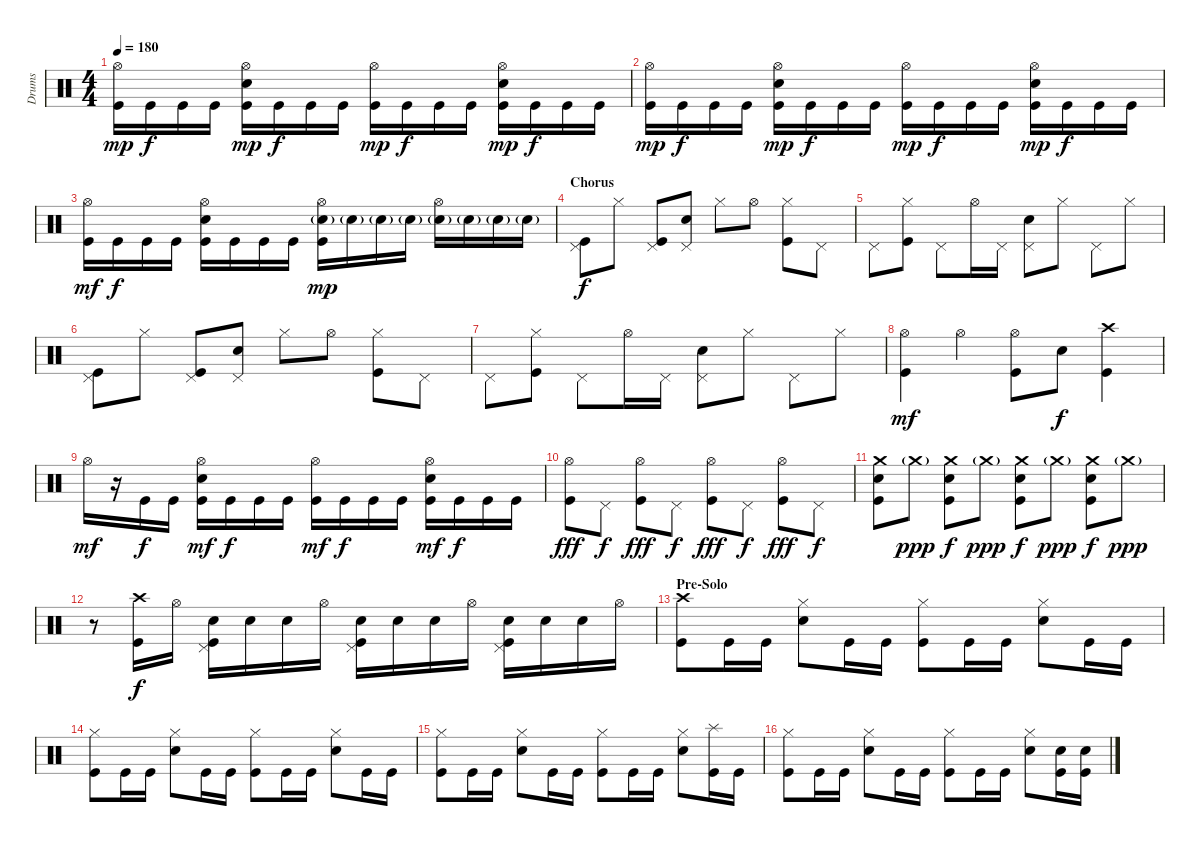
\track ("Drums" "Drums") {instrument percussion}
\staff {score}
\articulation defaults
\ts (4 4)
\tempo 180
\clef neutral
\ks c
("Hi-Hat (open)" "Kick (hit)").16{dy mp} "Kick (hit)".16{dy f} "Kick (hit)".16 "Kick (hit)".16 ("Hi-Hat (open)" "Electric Snare (hit)" "Kick (hit)").16{dy mp} "Kick (hit)".16{dy f} "Kick (hit)".16 "Kick (hit)".16 ("Hi-Hat (open)" "Kick (hit)").16{dy mp} "Kick (hit)".16{dy f} "Kick (hit)".16 "Kick (hit)".16 ("Hi-Hat (open)" "Electric Snare (hit)" "Kick (hit)").16{dy mp} "Kick (hit)".16{dy f} "Kick (hit)".16 "Kick (hit)".16 |
("Hi-Hat (open)" "Kick (hit)").16{dy mp} "Kick (hit)".16{dy f} "Kick (hit)".16 "Kick (hit)".16 ("Hi-Hat (open)" "Electric Snare (hit)" "Kick (hit)").16{dy mp} "Kick (hit)".16{dy f} "Kick (hit)".16 "Kick (hit)".16 ("Hi-Hat (open)" "Kick (hit)").16{dy mp} "Kick (hit)".16{dy f} "Kick (hit)".16 "Kick (hit)".16 ("Hi-Hat (open)" "Electric Snare (hit)" "Kick (hit)").16{dy mp} "Kick (hit)".16{dy f} "Kick (hit)".16 "Kick (hit)".16 |
("Hi-Hat (open)" "Kick (hit)").16{dy mf} "Kick (hit)".16{dy f} "Kick (hit)".16 "Kick (hit)".16 ("Hi-Hat (open)" "Electric Snare (hit)" "Kick (hit)").16 "Kick (hit)".16 "Kick (hit)".16 "Kick (hit)".16 ("Hi-Hat (open)" "Electric Snare (hit)"{g} "Kick (hit)").16{dy mp} "Electric Snare (hit)"{g}.16 "Electric Snare (hit)"{g}.16 "Electric Snare (hit)"{g}.16 ("Hi-Hat (open)" "Electric Snare (hit)"{g}).16 "Electric Snare (hit)"{g}.16 "Electric Snare (hit)"{g}.16 "Electric Snare (hit)"{g}.16 |
\section ("" "Chorus")
("Pedal Hi-Hat (hit)" "Kick (hit)").8{dy f} "Hi-Hat (closed)".8 ("Pedal Hi-Hat (hit)" "Kick (hit)").8 ("Pedal Hi-Hat (hit)" "Electric Snare (hit)").8 "Hi-Hat (closed)".8 "Hi-Hat (open)".8 ("Hi-Hat (closed)" "Kick (hit)").8 "Pedal Hi-Hat (hit)".8 |
"Pedal Hi-Hat (hit)".8 ("Hi-Hat (closed)" "Kick (hit)").8 "Pedal Hi-Hat (hit)".8 "Hi-Hat (open)".16 "Pedal Hi-Hat (hit)".16 ("Pedal Hi-Hat (hit)" "Electric Snare (hit)").8 "Hi-Hat (closed)".8 "Pedal Hi-Hat (hit)".8 "Hi-Hat (closed)".8 |
("Pedal Hi-Hat (hit)" "Kick (hit)").8 "Hi-Hat (closed)".8 ("Pedal Hi-Hat (hit)" "Kick (hit)").8 ("Pedal Hi-Hat (hit)" "Electric Snare (hit)").8 "Hi-Hat (closed)".8 "Hi-Hat (open)".8 ("Hi-Hat (closed)" "Kick (hit)").8 "Pedal Hi-Hat (hit)".8 |
"Pedal Hi-Hat (hit)".8 ("Hi-Hat (closed)" "Kick (hit)").8 "Pedal Hi-Hat (hit)".8 "Hi-Hat (open)".16 "Pedal Hi-Hat (hit)".16 ("Pedal Hi-Hat (hit)" "Electric Snare (hit)").8 "Hi-Hat (closed)".8 "Pedal Hi-Hat (hit)".8 "Hi-Hat (closed)".8 |
("Hi-Hat (open)" "Kick (hit)").4{dy mf} "Hi-Hat (open)".4 ("Hi-Hat (open)" "Kick (hit)").8 "Electric Snare (hit)".8{dy f} ("Crash high (hit)" "Kick (hit)").4 |
"Hi-Hat (open)".16{dy mf} r.16 "Kick (hit)".16{dy f} "Kick (hit)".16 ("Hi-Hat (open)" "Electric Snare (hit)" "Kick (hit)").16{dy mf} "Kick (hit)".16{dy f} "Kick (hit)".16 "Kick (hit)".16 ("Hi-Hat (open)" "Kick (hit)").16{dy mf} "Kick (hit)".16{dy f} "Kick (hit)".16 "Kick (hit)".16 ("Hi-Hat (open)" "Electric Snare (hit)" "Kick (hit)").16{dy mf} "Kick (hit)".16{dy f} "Kick (hit)".16 "Kick (hit)".16 |
("Hi-Hat (open)" "Kick (hit)").8{dy fff} "Pedal Hi-Hat (hit)".8{dy f} ("Hi-Hat (open)" "Kick (hit)").8{dy fff} "Pedal Hi-Hat (hit)".8{dy f} ("Hi-Hat (open)" "Kick (hit)").8{dy fff} "Pedal Hi-Hat (hit)".8{dy f} ("Hi-Hat (open)" "Kick (hit)").8{dy fff} "Pedal Hi-Hat (hit)".8{dy f} |
("Crash medium (hit)" "Electric Snare (hit)" "Kick (hit)").8 "Crash medium (hit)"{g}.8{dy ppp} ("Crash medium (hit)" "Electric Snare (hit)" "Kick (hit)").8{dy f} "Crash medium (hit)"{g}.8{dy ppp} ("Crash medium (hit)" "Electric Snare (hit)" "Kick (hit)").8{dy f} "Crash medium (hit)"{g}.8{dy ppp} ("Crash medium (hit)" "Electric Snare (hit)" "Kick (hit)").8{dy f} "Crash medium (hit)"{g}.8{dy ppp} |
r.8 ("Crash high (hit)" "Kick (hit)").16{dy f} "Hi-Hat (open)".16 ("Pedal Hi-Hat (hit)" "Electric Snare (hit)" "Kick (hit)").16 "Electric Snare (hit)".16 "Electric Snare (hit)".16 "Hi-Hat (open)".16 ("Pedal Hi-Hat (hit)" "Electric Snare (hit)" "Kick (hit)").16 "Electric Snare (hit)".16 "Electric Snare (hit)".16 "Hi-Hat (open)".16 ("Pedal Hi-Hat (hit)" "Electric Snare (hit)" "Kick (hit)").16 "Electric Snare (hit)".16 "Electric Snare (hit)".16 "Hi-Hat (open)".16 |
\section ("" "Pre-Solo")
("Crash high (hit)" "Kick (hit)").8 "Kick (hit)".16 "Kick (hit)".16 ("Hi-Hat (closed)" "Electric Snare (hit)").8 "Kick (hit)".16 "Kick (hit)".16 ("Hi-Hat (closed)" "Kick (hit)").8 "Kick (hit)".16 "Kick (hit)".16 ("Hi-Hat (closed)" "Electric Snare (hit)").8 "Kick (hit)".16 "Kick (hit)".16 |
("Hi-Hat (closed)" "Kick (hit)").8 "Kick (hit)".16 "Kick (hit)".16 ("Hi-Hat (closed)" "Electric Snare (hit)").8 "Kick (hit)".16 "Kick (hit)".16 ("Hi-Hat (closed)" "Kick (hit)").8 "Kick (hit)".16 "Kick (hit)".16 ("Hi-Hat (closed)" "Electric Snare (hit)").8 "Kick (hit)".16 "Kick (hit)".16 |
("Hi-Hat (closed)" "Kick (hit)").8 "Kick (hit)".16 "Kick (hit)".16 ("Hi-Hat (closed)" "Electric Snare (hit)").8 "Kick (hit)".16 "Kick (hit)".16 ("Hi-Hat (closed)" "Kick (hit)").8 "Kick (hit)".16 "Kick (hit)".16 ("Hi-Hat (closed)" "Electric Snare (hit)").8 ("Splash (hit)" "Kick (hit)").16 "Kick (hit)".16 |
("Hi-Hat (closed)" "Kick (hit)").8 "Kick (hit)".16 "Kick (hit)".16 ("Hi-Hat (closed)" "Electric Snare (hit)").8 "Kick (hit)".16 "Kick (hit)".16 ("Hi-Hat (closed)" "Kick (hit)").8 "Kick (hit)".16 "Kick (hit)".16 ("Hi-Hat (closed)" "Electric Snare (hit)").8 ("Electric Snare (hit)" "Kick (hit)").16 ("Electric Snare (hit)" "Kick (hit)").16
